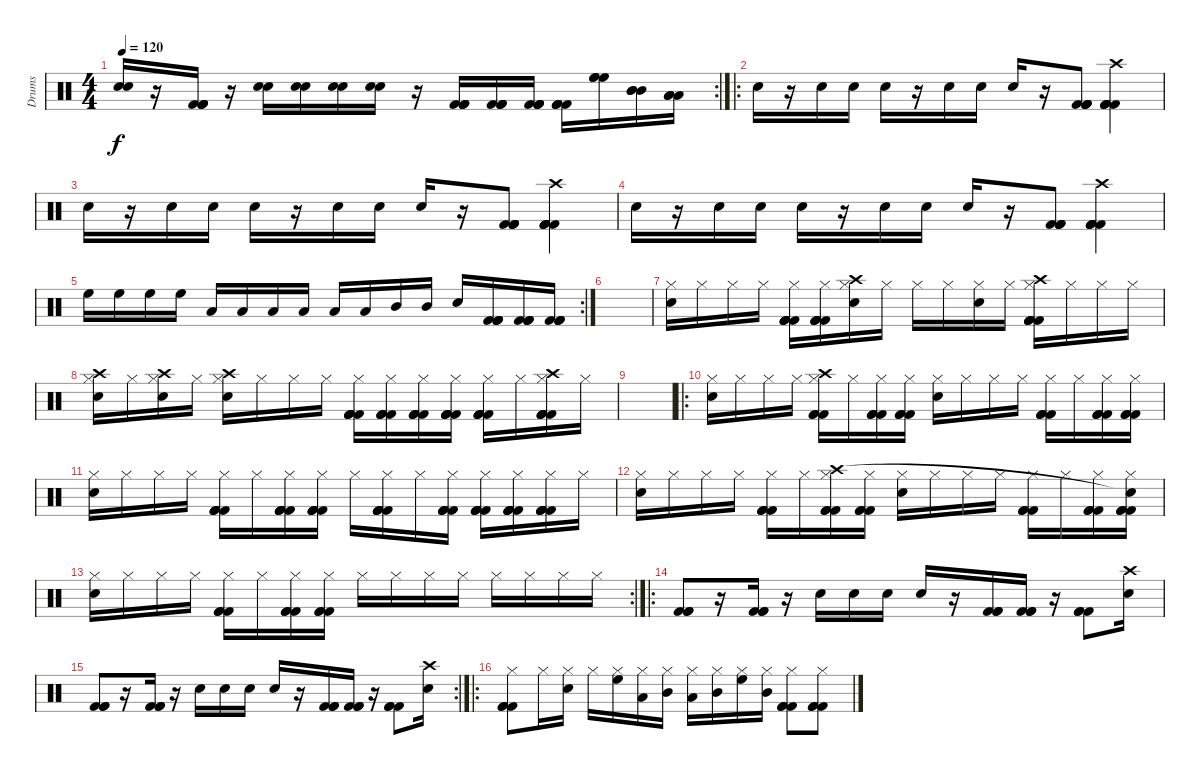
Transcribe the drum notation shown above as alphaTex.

\track ("Drums" "Drums") {instrument percussion}
\staff {score}
\articulation defaults
\rc 2
\ts (4 4)
\tempo 120
\clef neutral
\ks c
("Snare (hit) 2" "Snare (hit) 2").16{dy f} r.16 ("Kick (hit) 2" "Kick (hit) 2" "Kick (hit) 2" "Kick (hit) 2").16 r.16 ("Snare (hit) 2" "Snare (hit) 2").16 ("Snare (hit) 2" "Snare (hit) 2").16 ("Snare (hit) 2" "Snare (hit) 2").16 ("Snare (hit) 2" "Snare (hit) 2").16 r.16 ("Kick (hit) 2" "Kick (hit) 2" "Kick (hit) 2" "Kick (hit) 2").16 ("Kick (hit) 2" "Kick (hit) 2" "Kick (hit) 2" "Kick (hit) 2").16 ("Kick (hit) 2" "Kick (hit) 2" "Kick (hit) 2" "Kick (hit) 2").16 ("Kick (hit) 2" "Kick (hit) 2" "Kick (hit) 2" "Kick (hit) 2").16 ("High Floor Tom (hit)" "High Floor Tom (hit)" "High Floor Tom (hit)").16 ("Mid Tom (hit)" "Mid Tom (hit)" "Mid Tom (hit)").16 ("Low Tom (hit)" "Low Tom (hit)" "Low Tom (hit)").16 |
\ro "Snare (hit) 2".16
r.16 "Snare (hit) 2".16 "Snare (hit) 2".16 "Snare (hit) 2".16 r.16 "Snare (hit) 2".16 "Snare (hit) 2".16 "Snare (hit) 2".16 r.16 ("Kick (hit) 2" "Kick (hit) 2" "Kick (hit) 2" "Kick (hit) 2").8 ("Crash high (hit)" "Kick (hit) 2" "Kick (hit) 2" "Kick (hit) 2" "Kick (hit) 2").4 |
"Snare (hit) 2".16 r.16 "Snare (hit) 2".16 "Snare (hit) 2".16 "Snare (hit) 2".16 r.16 "Snare (hit) 2".16 "Snare (hit) 2".16 "Snare (hit) 2".16 r.16 ("Kick (hit) 2" "Kick (hit) 2" "Kick (hit) 2" "Kick (hit) 2").8 ("Crash high (hit)" "Kick (hit) 2" "Kick (hit) 2" "Kick (hit) 2" "Kick (hit) 2").4 |
"Snare (hit) 2".16 r.16 "Snare (hit) 2".16 "Snare (hit) 2".16 "Snare (hit) 2".16 r.16 "Snare (hit) 2".16 "Snare (hit) 2".16 "Snare (hit) 2".16 r.16 ("Kick (hit) 2" "Kick (hit) 2" "Kick (hit) 2" "Kick (hit) 2").8 ("Crash high (hit)" "Kick (hit) 2" "Kick (hit) 2" "Kick (hit) 2" "Kick (hit) 2").4 |
\rc 2 "High Floor Tom (hit)".16 "High Floor Tom (hit)".16 "High Floor Tom (hit)".16 "High Floor Tom (hit)".16 "Low Tom (hit)".16 "Low Tom (hit)".16 "Low Tom (hit)".16 "Low Tom (hit)".16 "Low Floor Tom (hit)".16 "Low Floor Tom (hit)".16 "Mid Tom (hit)".16 "Mid Tom (hit)".16 "Snare (hit) 2".16
("Kick (hit) 2" "Kick (hit) 2" "Kick (hit) 2" "Kick (hit) 2").16 ("Kick (hit) 2" "Kick (hit) 2" "Kick (hit) 2" "Kick (hit) 2").16 ("Kick (hit) 2" "Kick (hit) 2" "Kick (hit) 2" "Kick (hit) 2").16 |
|
("Hi-Hat (closed)" "Snare (hit) 2").16 "Hi-Hat (closed)".16 "Hi-Hat (closed)".16 "Hi-Hat (closed)".16 ("Hi-Hat (closed)" "Kick (hit) 2" "Kick (hit) 2" "Kick (hit) 2" "Kick (hit) 2").16 ("Hi-Hat (closed)" "Kick (hit) 2" "Kick (hit) 2" "Kick (hit) 2" "Kick (hit) 2").16 ("Hi-Hat (closed)" "Crash high (hit)" "Snare (hit) 2").16 "Hi-Hat (closed)".16 "Hi-Hat (closed)".16 "Hi-Hat (closed)".16 ("Hi-Hat (closed)" "Snare (hit) 2").16 "Hi-Hat (closed)".16 ("Hi-Hat (closed)" "Crash high (hit)" "Kick (hit) 2" "Kick (hit) 2" "Kick (hit) 2" "Kick (hit) 2").16 "Hi-Hat (closed)".16 "Hi-Hat (closed)".16 "Hi-Hat (closed)".16 |
("Hi-Hat (closed)" "Snare (hit) 2" "Crash high (hit)").16 "Hi-Hat (closed)".16 ("Hi-Hat (closed)" "Snare (hit) 2" "Crash high (hit)").16 "Hi-Hat (closed)".16 ("Hi-Hat (closed)" "Snare (hit) 2" "Crash high (hit)").16 "Hi-Hat (closed)".16 "Hi-Hat (closed)".16 "Hi-Hat (closed)".16 ("Hi-Hat (closed)" "Kick (hit) 2" "Kick (hit) 2" "Kick (hit) 2" "Kick (hit) 2").16 ("Hi-Hat (closed)" "Kick (hit) 2" "Kick (hit) 2" "Kick (hit) 2" "Kick (hit) 2").16 ("Hi-Hat (closed)" "Kick (hit) 2" "Kick (hit) 2" "Kick (hit) 2" "Kick (hit) 2").16 ("Hi-Hat (closed)" "Kick (hit) 2" "Kick (hit) 2" "Kick (hit) 2" "Kick (hit) 2").16 ("Hi-Hat (closed)" "Kick (hit) 2" "Kick (hit) 2" "Kick (hit) 2" "Kick (hit) 2").16 "Hi-Hat (closed)".16 ("Hi-Hat (closed)" "Kick (hit) 2" "Kick (hit) 2" "Kick (hit) 2" "Kick (hit) 2" "Crash high (hit)").16 "Hi-Hat (closed)".16 |
|
\ro
("Hi-Hat (closed)" "Snare (hit) 2").16 "Hi-Hat (closed)".16 "Hi-Hat (closed)".16 "Hi-Hat (closed)".16 ("Hi-Hat (closed)" "Kick (hit) 2" "Kick (hit) 2" "Kick (hit) 2" "Crash high (hit)").16 "Hi-Hat (closed)".16 ("Hi-Hat (closed)" "Kick (hit) 2" "Kick (hit) 2" "Kick (hit) 2").16 ("Hi-Hat (closed)" "Kick (hit) 2" "Kick (hit) 2" "Kick (hit) 2").16 ("Hi-Hat (closed)" "Snare (hit) 2").16 "Hi-Hat (closed)".16 "Hi-Hat (closed)".16 "Hi-Hat (closed)".16 ("Hi-Hat (closed)" "Kick (hit) 2" "Kick (hit) 2" "Kick (hit) 2").16 "Hi-Hat (closed)".16 ("Hi-Hat (closed)" "Kick (hit) 2" "Kick (hit) 2" "Kick (hit) 2").16 ("Hi-Hat (closed)" "Kick (hit) 2" "Kick (hit) 2" "Kick (hit) 2").16 |
("Hi-Hat (closed)" "Snare (hit) 2").16 "Hi-Hat (closed)".16 "Hi-Hat (closed)".16 "Hi-Hat (closed)".16 ("Hi-Hat (closed)" "Kick (hit) 2" "Kick (hit) 2" "Kick (hit) 2" "Kick (hit) 2").16 "Hi-Hat (closed)".16 ("Hi-Hat (closed)" "Kick (hit) 2" "Kick (hit) 2" "Kick (hit) 2" "Kick (hit) 2").16 ("Hi-Hat (closed)" "Kick (hit) 2" "Kick (hit) 2" "Kick (hit) 2" "Kick (hit) 2").16 "Hi-Hat (closed)".16 ("Hi-Hat (closed)" "Kick (hit) 2" "Kick (hit) 2" "Kick (hit) 2" "Kick (hit) 2").16 "Hi-Hat (closed)".16 ("Hi-Hat (closed)" "Kick (hit) 2" "Kick (hit) 2" "Kick (hit) 2" "Kick (hit) 2").16 ("Hi-Hat (closed)" "Kick (hit) 2" "Kick (hit) 2" "Kick (hit) 2" "Kick (hit) 2").16 ("Hi-Hat (closed)" "Kick (hit) 2" "Kick (hit) 2" "Kick (hit) 2" "Kick (hit) 2").16 ("Hi-Hat (closed)" "Kick (hit) 2" "Kick (hit) 2" "Kick (hit) 2" "Kick (hit) 2").16 "Hi-Hat (closed)".16 |
("Hi-Hat (closed)" "Snare (hit) 2").16 "Hi-Hat (closed)".16 "Hi-Hat (closed)".16 "Hi-Hat (closed)".16 ("Hi-Hat (closed)" "Kick (hit) 2" "Kick (hit) 2" "Kick (hit) 2").16 "Hi-Hat (closed)".16 ("Hi-Hat (closed)" "Kick (hit) 2" "Kick (hit) 2" "Kick (hit) 2" "Crash high (hit)").16 ("Hi-Hat (closed)" "Kick (hit) 2" "Kick (hit) 2" "Kick (hit) 2").16 ("Hi-Hat (closed)" "Snare (hit) 2").16 "Hi-Hat (closed)".16 "Hi-Hat (closed)".16 "Hi-Hat (closed)".16 ("Hi-Hat (closed)" "Kick (hit) 2" "Kick (hit) 2" "Kick (hit) 2").16 "Hi-Hat (closed)".16 ("Hi-Hat (closed)" "Kick (hit) 2" "Kick (hit) 2" "Kick (hit) 2").16 ("Hi-Hat (closed)" "Kick (hit) 2" "Kick (hit) 2" "Kick (hit) 2" "Snare (hit)"{t}).16 |
\rc 2
("Hi-Hat (closed)" "Snare (hit) 2").16 "Hi-Hat (closed)".16 "Hi-Hat (closed)".16 "Hi-Hat (closed)".16 ("Hi-Hat (closed)" "Kick (hit) 2" "Kick (hit) 2" "Kick (hit) 2").16 "Hi-Hat (closed)".16 ("Hi-Hat (closed)" "Kick (hit) 2" "Kick (hit) 2" "Kick (hit) 2").16 ("Hi-Hat (closed)" "Kick (hit) 2" "Kick (hit) 2" "Kick (hit) 2").16 "Hi-Hat (closed)".16 "Hi-Hat (closed)".16 "Hi-Hat (closed)".16 "Hi-Hat (closed)".16 "Hi-Hat (closed)".16 "Hi-Hat (closed)".16 "Hi-Hat (closed)".16 "Hi-Hat (closed)".16 |
\ro
("Kick (hit) 2" "Kick (hit) 2" "Kick (hit) 2").8 r.16 ("Kick (hit) 2" "Kick (hit) 2" "Kick (hit) 2").16 r.16 "Snare (hit) 2".16 "Snare (hit) 2".16 "Snare (hit) 2".16 "Snare (hit) 2".16 r.16 ("Kick (hit) 2" "Kick (hit) 2" "Kick (hit) 2").16 ("Kick (hit) 2" "Kick (hit) 2" "Kick (hit) 2").16 r.16 ("Kick (hit) 2" "Kick (hit) 2" "Kick (hit) 2").8 ("Crash high (hit)" "Snare (hit) 2").16 |
\rc 2
("Kick (hit) 2" "Kick (hit) 2" "Kick (hit) 2").8 r.16 ("Kick (hit) 2" "Kick (hit) 2" "Kick (hit) 2").16 r.16 "Snare (hit) 2".16 "Snare (hit) 2".16 "Snare (hit) 2".16 "Snare (hit) 2".16 r.16 ("Kick (hit) 2" "Kick (hit) 2" "Kick (hit) 2").16 ("Kick (hit) 2" "Kick (hit) 2" "Kick (hit) 2").16 r.16 ("Kick (hit) 2" "Kick (hit) 2" "Kick (hit) 2").8 ("Crash high (hit)" "Snare (hit) 2").16 |
\ro
("Hi-Hat (closed)" "Kick (hit) 2" "Kick (hit) 2" "Kick (hit) 2").8 "Hi-Hat (closed)".16 ("Hi-Hat (closed)" "Snare (hit) 2").16 "Hi-Hat (closed)".16 ("Hi-Hat (closed)" "High Floor Tom (hit)").16 ("Hi-Hat (closed)" "Low Floor Tom (hit)").16 ("Hi-Hat (closed)" "Mid Tom (hit)").16 ("Hi-Hat (closed)" "Low Tom (hit)").16 ("Hi-Hat (closed)" "Mid Tom (hit)").16 ("Hi-Hat (closed)" "High Floor Tom (hit)").16 ("Hi-Hat (closed)" "Mid Tom (hit)").16 ("Hi-Hat (closed)" "Kick (hit) 2" "Kick (hit) 2" "Kick (hit) 2").8 ("Hi-Hat (closed)" "Kick (hit) 2" "Kick (hit) 2" "Kick (hit) 2").8
